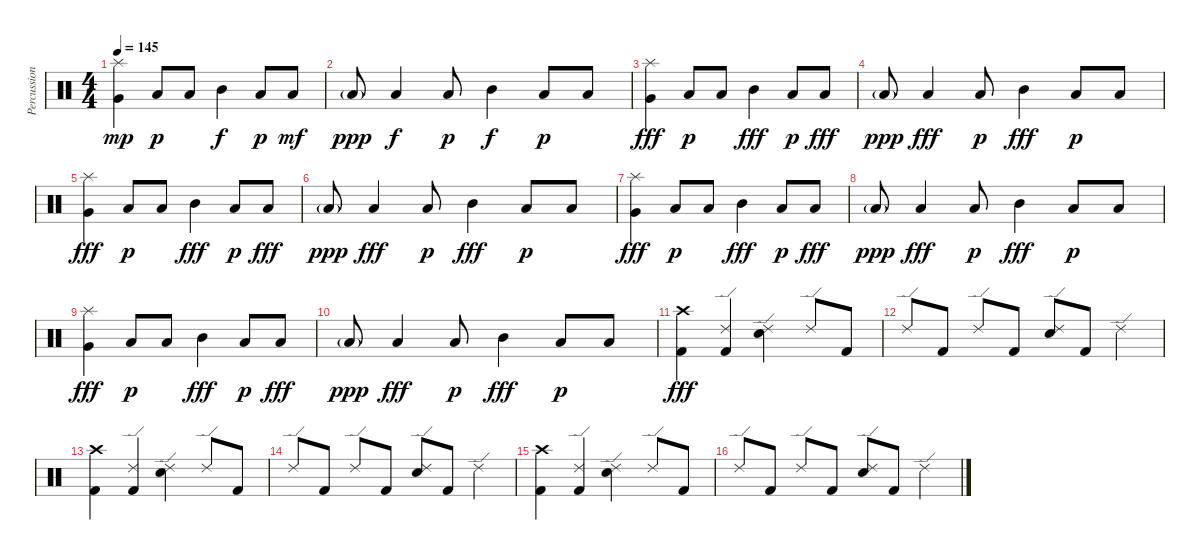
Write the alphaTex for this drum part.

\track ("Percussion" "Percussion") {instrument percussion}
\staff {score}
\articulation defaults
\ts (4 4)
\tempo 145
\clef neutral
\ks c
("Splash (hit)" "Very Low Tom (hit)").4{dy mp} "Low Floor Tom (hit)".8{dy p} "Low Floor Tom (hit)".8 "Mid Tom (hit)".4{dy f} "Low Floor Tom (hit)".8{dy p} "Low Tom (hit)".8{dy mf} |
"Low Floor Tom (hit)"{g}.8{dy ppp} "Low Tom (hit)".4{dy f} "Low Floor Tom (hit)".8{dy p} "Mid Tom (hit)".4{dy f} "Low Floor Tom (hit)".8{dy p} "Low Floor Tom (hit)".8 |
("Splash (hit)" "Very Low Tom (hit)").4{dy fff} "Low Floor Tom (hit)".8{dy p} "Low Floor Tom (hit)".8 "Mid Tom (hit)".4{dy fff} "Low Floor Tom (hit)".8{dy p} "Low Tom (hit)".8{dy fff} |
"Low Floor Tom (hit)"{g}.8{dy ppp} "Low Tom (hit)".4{dy fff} "Low Floor Tom (hit)".8{dy p} "Mid Tom (hit)".4{dy fff} "Low Floor Tom (hit)".8{dy p} "Low Floor Tom (hit)".8 |
("Splash (hit)" "Very Low Tom (hit)").4{dy fff} "Low Floor Tom (hit)".8{dy p} "Low Floor Tom (hit)".8 "Mid Tom (hit)".4{dy fff} "Low Floor Tom (hit)".8{dy p} "Low Tom (hit)".8{dy fff} |
"Low Floor Tom (hit)"{g}.8{dy ppp} "Low Tom (hit)".4{dy fff} "Low Floor Tom (hit)".8{dy p} "Mid Tom (hit)".4{dy fff} "Low Floor Tom (hit)".8{dy p} "Low Floor Tom (hit)".8 |
("Splash (hit)" "Very Low Tom (hit)").4{dy fff} "Low Floor Tom (hit)".8{dy p} "Low Floor Tom (hit)".8 "Mid Tom (hit)".4{dy fff} "Low Floor Tom (hit)".8{dy p} "Low Tom (hit)".8{dy fff} |
"Low Floor Tom (hit)"{g}.8{dy ppp} "Low Tom (hit)".4{dy fff} "Low Floor Tom (hit)".8{dy p} "Mid Tom (hit)".4{dy fff} "Low Floor Tom (hit)".8{dy p} "Low Floor Tom (hit)".8 |
("Splash (hit)" "Very Low Tom (hit)").4{dy fff} "Low Floor Tom (hit)".8{dy p} "Low Floor Tom (hit)".8 "Mid Tom (hit)".4{dy fff} "Low Floor Tom (hit)".8{dy p} "Low Tom (hit)".8{dy fff} |
"Low Floor Tom (hit)"{g}.8{dy ppp} "Low Tom (hit)".4{dy fff} "Low Floor Tom (hit)".8{dy p} "Mid Tom (hit)".4{dy fff} "Low Floor Tom (hit)".8{dy p} "Low Floor Tom (hit)".8 |
("Crash high (hit)" "Kick (hit) 2").4{dy fff} ("Ride (edge) 2" "Kick (hit) 2").4 ("Ride (edge) 2" "Electric Snare (hit)").4 "Ride (edge) 2".8 "Kick (hit) 2".8 |
"Ride (edge) 2".8 "Kick (hit) 2".8 "Ride (edge) 2".8 "Kick (hit) 2".8 ("Ride (edge) 2" "Electric Snare (hit)").8 "Kick (hit) 2".8 "Ride (edge) 2".4 |
("Crash high (hit)" "Kick (hit) 2").4 ("Ride (edge) 2" "Kick (hit) 2").4 ("Ride (edge) 2" "Electric Snare (hit)").4 "Ride (edge) 2".8 "Kick (hit) 2".8 |
"Ride (edge) 2".8 "Kick (hit) 2".8 "Ride (edge) 2".8 "Kick (hit) 2".8 ("Ride (edge) 2" "Electric Snare (hit)").8 "Kick (hit) 2".8 "Ride (edge) 2".4 |
("Crash high (hit)" "Kick (hit) 2").4 ("Ride (edge) 2" "Kick (hit) 2").4 ("Ride (edge) 2" "Electric Snare (hit)").4 "Ride (edge) 2".8 "Kick (hit) 2".8 |
"Ride (edge) 2".8 "Kick (hit) 2".8 "Ride (edge) 2".8 "Kick (hit) 2".8 ("Ride (edge) 2" "Electric Snare (hit)").8 "Kick (hit) 2".8 "Ride (edge) 2".4
